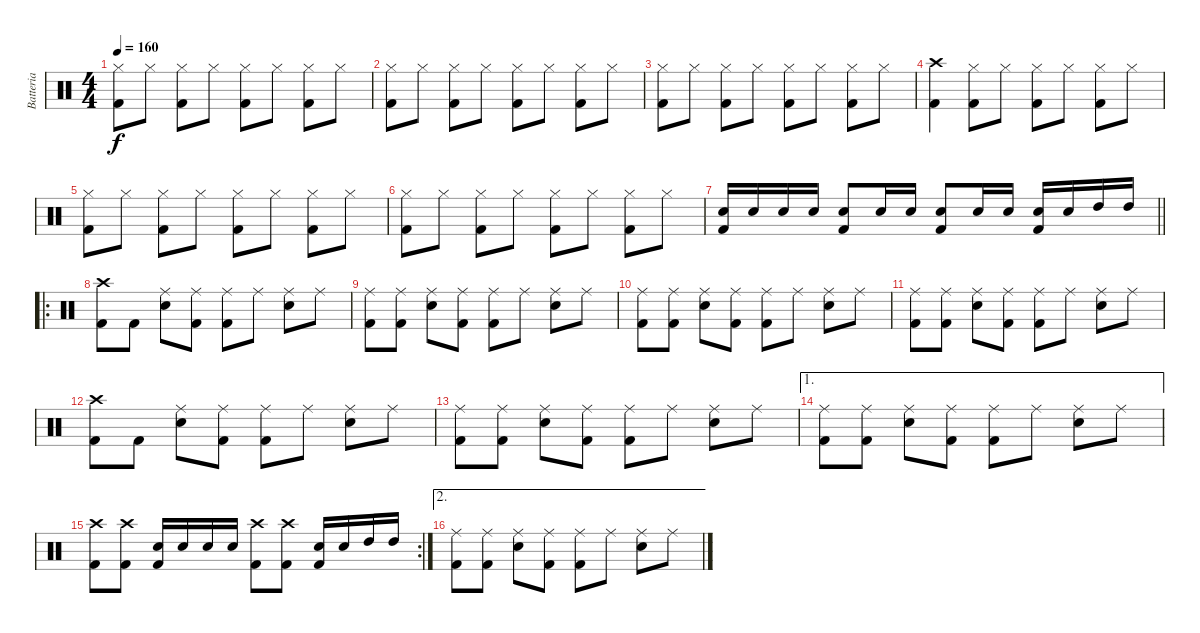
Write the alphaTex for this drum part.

\track ("Batteria" "Batteria") {instrument percussion}
\staff {score}
\articulation defaults
\ts (4 4)
\tempo 160
\clef neutral
\ks c
("Hi-Hat (closed)" "Kick (hit) 2").8{dy f} "Hi-Hat (closed)".8 ("Hi-Hat (closed)" "Kick (hit) 2").8 "Hi-Hat (closed)".8 ("Hi-Hat (closed)" "Kick (hit) 2").8 "Hi-Hat (closed)".8 ("Hi-Hat (closed)" "Kick (hit) 2").8 "Hi-Hat (closed)".8 |
("Hi-Hat (closed)" "Kick (hit) 2").8 "Hi-Hat (closed)".8 ("Hi-Hat (closed)" "Kick (hit) 2").8 "Hi-Hat (closed)".8 ("Hi-Hat (closed)" "Kick (hit) 2").8 "Hi-Hat (closed)".8 ("Hi-Hat (closed)" "Kick (hit) 2").8 "Hi-Hat (closed)".8 |
("Hi-Hat (closed)" "Kick (hit) 2").8 "Hi-Hat (closed)".8 ("Hi-Hat (closed)" "Kick (hit) 2").8 "Hi-Hat (closed)".8 ("Hi-Hat (closed)" "Kick (hit) 2").8 "Hi-Hat (closed)".8 ("Hi-Hat (closed)" "Kick (hit) 2").8 "Hi-Hat (closed)".8 |
("Crash high (hit)" "Kick (hit) 2").4 ("Hi-Hat (closed)" "Kick (hit) 2").8 "Hi-Hat (closed)".8 ("Hi-Hat (closed)" "Kick (hit) 2").8 "Hi-Hat (closed)".8 ("Hi-Hat (closed)" "Kick (hit) 2").8 "Hi-Hat (closed)".8 |
("Hi-Hat (closed)" "Kick (hit) 2").8 "Hi-Hat (closed)".8 ("Hi-Hat (closed)" "Kick (hit) 2").8 "Hi-Hat (closed)".8 ("Hi-Hat (closed)" "Kick (hit) 2").8 "Hi-Hat (closed)".8 ("Hi-Hat (closed)" "Kick (hit) 2").8 "Hi-Hat (closed)".8 |
("Hi-Hat (closed)" "Kick (hit) 2").8 "Hi-Hat (closed)".8 ("Hi-Hat (closed)" "Kick (hit) 2").8 "Hi-Hat (closed)".8 ("Hi-Hat (closed)" "Kick (hit) 2").8 "Hi-Hat (closed)".8 ("Hi-Hat (closed)" "Kick (hit) 2").8 "Hi-Hat (closed)".8 |
\barLineRight lightlight
("Electric Snare (hit)" "Kick (hit) 2").16 "Electric Snare (hit)".16 "Electric Snare (hit)".16 "Electric Snare (hit)".16 ("Electric Snare (hit)" "Kick (hit) 2").8 "Electric Snare (hit)".16 "Electric Snare (hit)".16 ("Electric Snare (hit)" "Kick (hit) 2").8 "Electric Snare (hit)".16 "Electric Snare (hit)".16 ("Electric Snare (hit)" "Kick (hit) 2").16 "Electric Snare (hit)".16 "High Tom (hit)".16 "High Tom (hit)".16 |
\ro
("Crash high (hit)" "Kick (hit) 2").8 "Kick (hit) 2".8 ("Ride (middle)" "Electric Snare (hit)").8 ("Ride (middle)" "Kick (hit) 2").8 ("Ride (middle)" "Kick (hit) 2").8 "Ride (middle)".8 ("Ride (middle)" "Electric Snare (hit)").8 "Ride (middle)".8 |
("Ride (middle)" "Kick (hit) 2").8 ("Ride (middle)" "Kick (hit) 2").8 ("Ride (middle)" "Electric Snare (hit)").8 ("Ride (middle)" "Kick (hit) 2").8 ("Ride (middle)" "Kick (hit) 2").8 "Ride (middle)".8 ("Ride (middle)" "Electric Snare (hit)").8 "Ride (middle)".8 |
("Ride (middle)" "Kick (hit) 2").8 ("Ride (middle)" "Kick (hit) 2").8 ("Ride (middle)" "Electric Snare (hit)").8 ("Ride (middle)" "Kick (hit) 2").8 ("Ride (middle)" "Kick (hit) 2").8 "Ride (middle)".8 ("Ride (middle)" "Electric Snare (hit)").8 "Ride (middle)".8 |
("Ride (middle)" "Kick (hit) 2").8 ("Ride (middle)" "Kick (hit) 2").8 ("Ride (middle)" "Electric Snare (hit)").8 ("Ride (middle)" "Kick (hit) 2").8 ("Ride (middle)" "Kick (hit) 2").8 "Ride (middle)".8 ("Ride (middle)" "Electric Snare (hit)").8 "Ride (middle)".8 |
("Crash high (hit)" "Kick (hit) 2").8 "Kick (hit) 2".8 ("Ride (middle)" "Electric Snare (hit)").8 ("Ride (middle)" "Kick (hit) 2").8 ("Ride (middle)" "Kick (hit) 2").8 "Ride (middle)".8 ("Ride (middle)" "Electric Snare (hit)").8 "Ride (middle)".8 |
("Ride (middle)" "Kick (hit) 2").8 ("Ride (middle)" "Kick (hit) 2").8 ("Ride (middle)" "Electric Snare (hit)").8 ("Ride (middle)" "Kick (hit) 2").8 ("Ride (middle)" "Kick (hit) 2").8 "Ride (middle)".8 ("Ride (middle)" "Electric Snare (hit)").8 "Ride (middle)".8 |
\ae 1
("Ride (middle)" "Kick (hit) 2").8 ("Ride (middle)" "Kick (hit) 2").8 ("Ride (middle)" "Electric Snare (hit)").8 ("Ride (middle)" "Kick (hit) 2").8 ("Ride (middle)" "Kick (hit) 2").8 "Ride (middle)".8 ("Ride (middle)" "Electric Snare (hit)").8 "Ride (middle)".8 |
\rc 2
("Crash high (hit)" "Kick (hit) 2").8 ("Crash high (hit)" "Kick (hit) 2").8 ("Electric Snare (hit)" "Kick (hit) 2").16 "Electric Snare (hit)".16 "Electric Snare (hit)".16 "Electric Snare (hit)".16 ("Crash high (hit)" "Kick (hit) 2").8 ("Crash high (hit)" "Kick (hit) 2").8 ("Electric Snare (hit)" "Kick (hit) 2").16 "Electric Snare (hit)".16 "High Tom (hit)".16 "High Tom (hit)".16 |
\ae 2
("Ride (middle)" "Kick (hit) 2").8 ("Ride (middle)" "Kick (hit) 2").8 ("Ride (middle)" "Electric Snare (hit)").8 ("Ride (middle)" "Kick (hit) 2").8 ("Ride (middle)" "Kick (hit) 2").8 "Ride (middle)".8 ("Ride (middle)" "Electric Snare (hit)").8 "Ride (middle)".8
